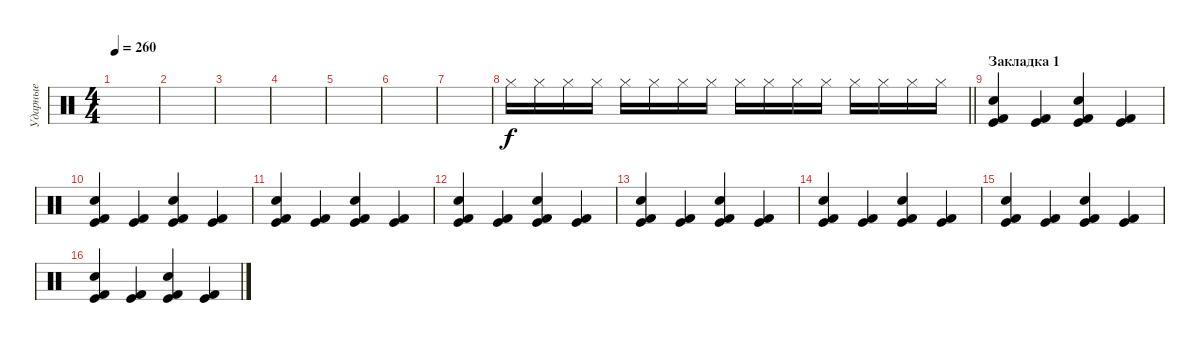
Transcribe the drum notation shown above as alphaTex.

\track ("Ударные" "Ударные") {instrument percussion}
\staff {score}
\articulation defaults
\ts (4 4)
\tempo 260
\clef neutral
\ks c
|
|
|
|
|
|
|
\barLineRight lightlight "Hi-Hat (closed)".16{volume 16} "Hi-Hat (closed)".16 "Hi-Hat (closed)".16 "Hi-Hat (closed)".16 "Hi-Hat (closed)".16 "Hi-Hat (closed)".16 "Hi-Hat (closed)".16 "Hi-Hat (closed)".16 "Hi-Hat (closed)".16 "Hi-Hat (closed)".16 "Hi-Hat (closed)".16 "Hi-Hat (closed)".16 "Hi-Hat (closed)".16 "Hi-Hat (closed)".16 "Hi-Hat (closed)".16 "Hi-Hat (closed)".16
|
\section ("" "Закладка 1")
("Kick (hit) 2" "Kick (hit)" "Snare (hit) 2").4 ("Kick (hit)" "Kick (hit) 2").4 ("Kick (hit) 2" "Kick (hit)" "Snare (hit) 2").4 ("Kick (hit)" "Kick (hit) 2").4 |
("Kick (hit) 2" "Kick (hit)" "Snare (hit) 2").4 ("Kick (hit)" "Kick (hit) 2").4 ("Kick (hit) 2" "Kick (hit)" "Snare (hit) 2").4 ("Kick (hit)" "Kick (hit) 2").4 |
("Kick (hit) 2" "Kick (hit)" "Snare (hit) 2").4 ("Kick (hit)" "Kick (hit) 2").4 ("Kick (hit) 2" "Kick (hit)" "Snare (hit) 2").4 ("Kick (hit)" "Kick (hit) 2").4 |
("Kick (hit) 2" "Kick (hit)" "Snare (hit) 2").4 ("Kick (hit)" "Kick (hit) 2").4 ("Kick (hit) 2" "Kick (hit)" "Snare (hit) 2").4 ("Kick (hit)" "Kick (hit) 2").4 |
("Kick (hit) 2" "Kick (hit)" "Snare (hit) 2").4 ("Kick (hit)" "Kick (hit) 2").4 ("Kick (hit) 2" "Kick (hit)" "Snare (hit) 2").4 ("Kick (hit)" "Kick (hit) 2").4 |
("Kick (hit) 2" "Kick (hit)" "Snare (hit) 2").4 ("Kick (hit)" "Kick (hit) 2").4 ("Kick (hit) 2" "Kick (hit)" "Snare (hit) 2").4 ("Kick (hit)" "Kick (hit) 2").4 |
("Kick (hit) 2" "Kick (hit)" "Snare (hit) 2").4 ("Kick (hit)" "Kick (hit) 2").4 ("Kick (hit) 2" "Kick (hit)" "Snare (hit) 2").4 ("Kick (hit)" "Kick (hit) 2").4 |
("Kick (hit) 2" "Kick (hit)" "Snare (hit) 2").4 ("Kick (hit)" "Kick (hit) 2").4 ("Kick (hit) 2" "Kick (hit)" "Snare (hit) 2").4 ("Kick (hit)" "Kick (hit) 2").4
